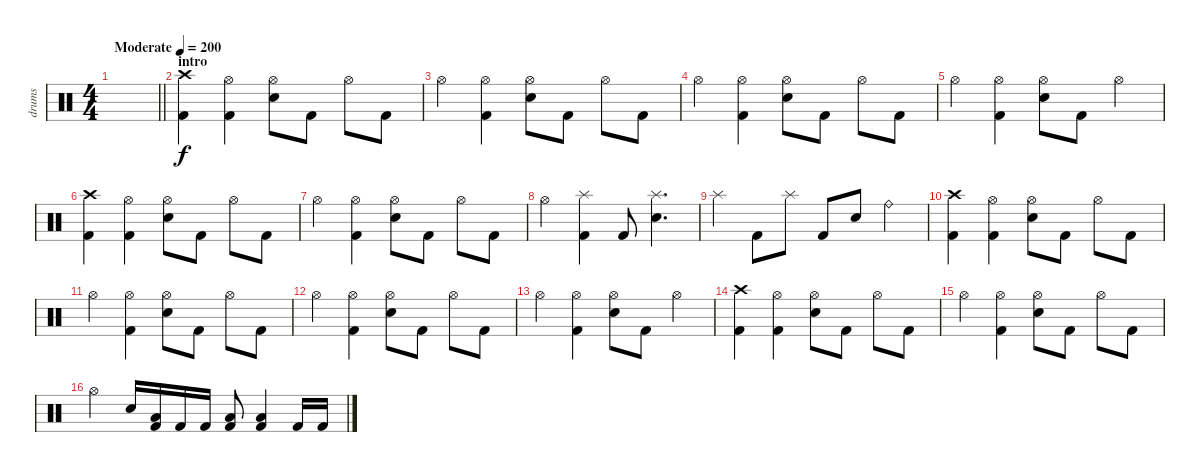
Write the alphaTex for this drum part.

\track ("drums" "drums") {instrument percussion}
\staff {score}
\articulation defaults
\ts (4 4)
\tempo (200 "Moderate")
\clef neutral
\barLineRight lightlight
\ks c
|
\section ("" "intro")
("Crash high (hit)" "Kick (hit) 2").4 ("Hi-Hat (open)" "Kick (hit) 2").4 ("Hi-Hat (open)" "Electric Snare (hit)").8 "Kick (hit) 2".8 "Hi-Hat (open)".8 "Kick (hit) 2".8 |
"Hi-Hat (open)".4 ("Hi-Hat (open)" "Kick (hit) 2").4 ("Hi-Hat (open)" "Electric Snare (hit)").8 "Kick (hit) 2".8 "Hi-Hat (open)".8 "Kick (hit) 2".8 |
"Hi-Hat (open)".4 ("Hi-Hat (open)" "Kick (hit) 2").4 ("Hi-Hat (open)" "Electric Snare (hit)").8 "Kick (hit) 2".8 "Hi-Hat (open)".8 "Kick (hit) 2".8 |
"Hi-Hat (open)".4 ("Hi-Hat (open)" "Kick (hit) 2").4 ("Hi-Hat (open)" "Electric Snare (hit)").8 "Kick (hit) 2".8 "Hi-Hat (open)".4 |
("Crash high (hit)" "Kick (hit) 2").4 ("Hi-Hat (open)" "Kick (hit) 2").4 ("Hi-Hat (open)" "Electric Snare (hit)").8 "Kick (hit) 2".8 "Hi-Hat (open)".8 "Kick (hit) 2".8 |
"Hi-Hat (open)".4 ("Hi-Hat (open)" "Kick (hit) 2").4 ("Hi-Hat (open)" "Electric Snare (hit)").8 "Kick (hit) 2".8 "Hi-Hat (open)".8 "Kick (hit) 2".8 |
"Hi-Hat (open)".4 ("Splash (hit)" "Kick (hit) 2").4 "Kick (hit) 2".8 ("Splash (hit)" "Electric Snare (hit)").4{d} |
"Splash (hit)".4 "Kick (hit) 2".8 "Splash (hit)".8 "Kick (hit) 2".8 "Electric Snare (hit)".8 "Ride (bell)".4 |
("Crash high (hit)" "Kick (hit) 2").4 ("Hi-Hat (open)" "Kick (hit) 2").4 ("Hi-Hat (open)" "Electric Snare (hit)").8 "Kick (hit) 2".8 "Hi-Hat (open)".8 "Kick (hit) 2".8 |
"Hi-Hat (open)".4 ("Hi-Hat (open)" "Kick (hit) 2").4 ("Hi-Hat (open)" "Electric Snare (hit)").8 "Kick (hit) 2".8 "Hi-Hat (open)".8 "Kick (hit) 2".8 |
"Hi-Hat (open)".4 ("Hi-Hat (open)" "Kick (hit) 2").4 ("Hi-Hat (open)" "Electric Snare (hit)").8 "Kick (hit) 2".8 "Hi-Hat (open)".8 "Kick (hit) 2".8 |
"Hi-Hat (open)".4 ("Hi-Hat (open)" "Kick (hit) 2").4 ("Hi-Hat (open)" "Electric Snare (hit)").8 "Kick (hit) 2".8 "Hi-Hat (open)".4 |
("Crash high (hit)" "Kick (hit) 2").4 ("Hi-Hat (open)" "Kick (hit) 2").4 ("Hi-Hat (open)" "Electric Snare (hit)").8 "Kick (hit) 2".8 "Hi-Hat (open)".8 "Kick (hit) 2".8 |
"Hi-Hat (open)".4 ("Hi-Hat (open)" "Kick (hit) 2").4 ("Hi-Hat (open)" "Electric Snare (hit)").8 "Kick (hit) 2".8 "Hi-Hat (open)".8 "Kick (hit) 2".8 |
"Hi-Hat (open)".4 "Electric Snare (hit)".16 ("Low Tom (hit)" "Kick (hit) 2").16 "Kick (hit) 2".16 "Kick (hit) 2".16 ("Low Tom (hit)" "Kick (hit) 2").8 ("Low Tom (hit)" "Kick (hit) 2").4 "Kick (hit) 2".16 "Kick (hit) 2".16
